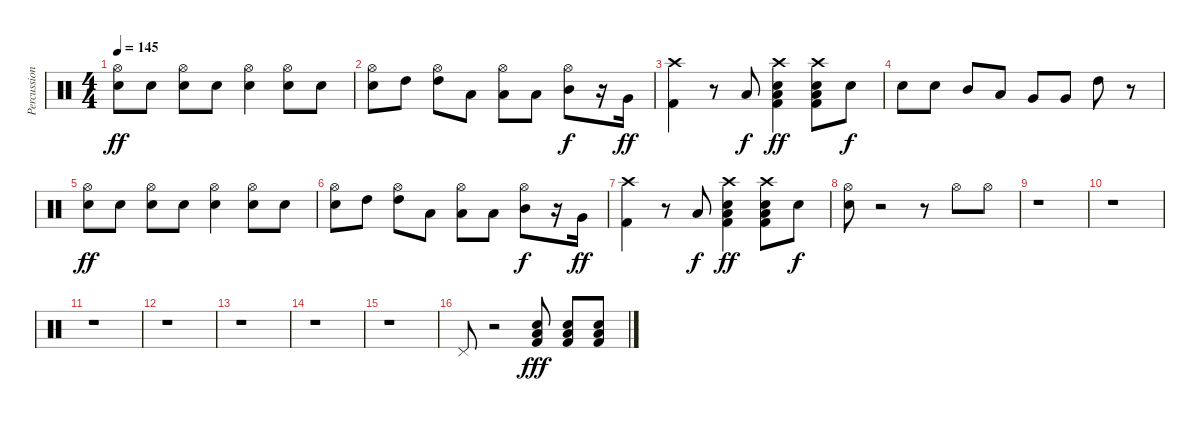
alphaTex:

\track ("Percussion" "Percussion") {instrument percussion}
\staff {score}
\articulation defaults
\ts (4 4)
\tempo 145
\clef neutral
\ks c
("Hi-Hat (open)" "Snare (hit) 2").8{dy ff} "Snare (hit) 2".8 ("Hi-Hat (open)" "Snare (hit) 2").8 "Snare (hit) 2".8 ("Hi-Hat (open)" "Snare (hit) 2").4 ("Hi-Hat (open)" "Snare (hit) 2").8 "Snare (hit) 2".8 |
("Hi-Hat (open)" "Snare (hit) 2").8 "High Tom (hit)".8 ("Hi-Hat (open)" "High Tom (hit)").8 "Low Tom (hit)".8 ("Hi-Hat (open)" "Low Tom (hit)").8 "Low Tom (hit)".8 ("Hi-Hat (open)" "Mid Tom (hit)").8{dy f} r.16 "Very Low Tom (hit)".16{dy ff} |
("Crash high (hit)" "Kick (hit) 2").4 r.8 "Low Floor Tom (hit)".8{dy f} ("Crash high (hit)" "Snare (hit) 2" "Low Floor Tom (hit)" "Kick (hit) 2").4{dy ff} ("Crash high (hit)" "Snare (hit) 2" "Low Floor Tom (hit)" "Kick (hit) 2").8 "Snare (hit) 2".8{dy f} |
"Snare (hit) 2".8 "Snare (hit) 2".8 "Mid Tom (hit)".8 "Low Tom (hit)".8 "Very Low Tom (hit)".8 "Very Low Tom (hit)".8 "High Tom (hit)".8 r.8 |
("Hi-Hat (open)" "Snare (hit) 2").8{dy ff} "Snare (hit) 2".8 ("Hi-Hat (open)" "Snare (hit) 2").8 "Snare (hit) 2".8 ("Hi-Hat (open)" "Snare (hit) 2").4 ("Hi-Hat (open)" "Snare (hit) 2").8 "Snare (hit) 2".8 |
("Hi-Hat (open)" "Snare (hit) 2").8 "High Tom (hit)".8 ("Hi-Hat (open)" "High Tom (hit)").8 "Low Tom (hit)".8 ("Hi-Hat (open)" "Low Tom (hit)").8 "Low Tom (hit)".8 ("Hi-Hat (open)" "Mid Tom (hit)").8{dy f} r.16 "Very Low Tom (hit)".16{dy ff} |
("Crash high (hit)" "Kick (hit) 2").4 r.8 "Low Floor Tom (hit)".8{dy f} ("Crash high (hit)" "Snare (hit) 2" "Low Floor Tom (hit)" "Kick (hit) 2").4{dy ff} ("Crash high (hit)" "Snare (hit) 2" "Low Floor Tom (hit)" "Kick (hit) 2").8 "Snare (hit) 2".8{dy f} |
("Hi-Hat (open)" "Snare (hit) 2").8 r.2 r.8 "Hi-Hat (open)".8 "Hi-Hat (open)".8 |
r.1 |
r.1 |
r.1 |
r.1 |
r.1 |
r.1 |
r.1 |
"Pedal Hi-Hat (hit)".8 r.2 ("Low Tom (hit)" "Snare (hit) 2" "Kick (hit) 2").8{dy fff} ("Low Tom (hit)" "Snare (hit) 2" "Kick (hit) 2").8 ("Low Tom (hit)" "Snare (hit) 2" "Kick (hit) 2").8
